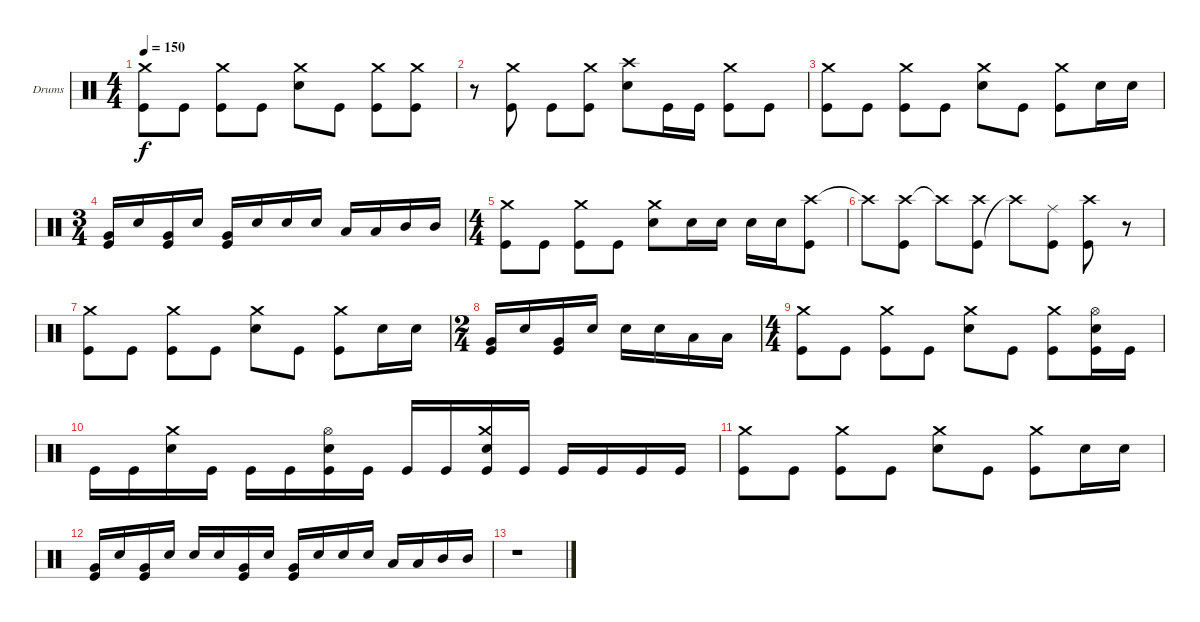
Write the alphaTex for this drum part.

\defaultSystemsLayout 4
\bracketExtendMode groupsimilarinstruments
\firstSystemTrackNameOrientation horizontal
\otherSystemsTrackNameOrientation horizontal
\track ("Moe Carlson" "Drums") {instrument percussion}
\staff {score}
\articulation defaults
\ts (4 4)
\tempo 150
\clef neutral
\ks c
("Kick (hit)" "Crash medium (hit)").8{dy f} "Kick (hit)".8 ("Kick (hit)" "Crash medium (hit)").8 "Kick (hit)".8 ("Snare (hit) 2" "Crash medium (hit)").8 "Kick (hit)".8 ("Kick (hit)" "Crash medium (hit)").8 ("Kick (hit)" "Crash medium (hit)").8 |
r.8 ("Crash medium (hit)" "Kick (hit)").8 "Kick (hit)".8 ("Kick (hit)" "Crash medium (hit)").8 ("Crash high (hit)" "Snare (hit) 2").8 "Kick (hit)".16 "Kick (hit)".16 ("Kick (hit)" "Crash medium (hit)").8 "Kick (hit)".8 |
("Crash medium (hit)" "Kick (hit)").8 "Kick (hit)".8 ("Kick (hit)" "Crash medium (hit)").8 "Kick (hit)".8 ("Snare (hit) 2" "Crash medium (hit)").8 "Kick (hit)".8 ("Kick (hit)" "Crash medium (hit)").8 "Snare (hit) 2".16 "Snare (hit) 2".16 |
\ts (3 4)
("Kick (hit)" "Very Low Tom (hit)").16 "Snare (hit) 2".16 ("Very Low Tom (hit)" "Kick (hit)").16 "Snare (hit) 2".16 ("Kick (hit)" "Very Low Tom (hit)").16 "Snare (hit) 2".16 "Snare (hit) 2".16 "Snare (hit) 2".16 "Low Tom (hit)".16 "Low Tom (hit)".16 "Mid Tom (hit)".16 "Mid Tom (hit)".16 |
\ts (4 4)
("Crash medium (hit)" "Kick (hit)").8 "Kick (hit)".8 ("Kick (hit)" "Crash medium (hit)").8 "Kick (hit)".8 ("Snare (hit) 2" "Crash medium (hit)").8 "Snare (hit) 2".16 "Snare (hit) 2".16 "Snare (hit) 2".16 "Snare (hit) 2".16 ("Crash high (hit)" "Kick (hit)").8 |
"Crash high (hit)"{t}.8 ("Crash high (hit)" "Kick (hit)").8 "Crash high (hit)"{t}.8 ("Kick (hit)" "Crash high (hit)").8 "Crash high (hit)"{t}.8 ("Kick (hit)" "Ride (middle)").8 ("Crash high (hit)" "Kick (hit)").8 r.8 |
("Kick (hit)" "Crash medium (hit)").8 "Kick (hit)".8 ("Kick (hit)" "Crash medium (hit)").8 "Kick (hit)".8 ("Snare (hit) 2" "Crash medium (hit)").8 "Kick (hit)".8 ("Kick (hit)" "Crash medium (hit)").8 "Snare (hit) 2".16 "Snare (hit) 2".16 |
\ts (2 4)
("Kick (hit)" "Very Low Tom (hit)").16 "Snare (hit) 2".16 ("Very Low Tom (hit)" "Kick (hit)").16 "Snare (hit) 2".16 "Snare (hit) 2".16 "Snare (hit) 2".16 "Low Tom (hit)".16 "Low Tom (hit)".16 |
\ts (4 4)
("Kick (hit)" "Crash medium (hit)").8 "Kick (hit)".8 ("Kick (hit)" "Crash medium (hit)").8 "Kick (hit)".8 ("Snare (hit) 2" "Crash medium (hit)").8 "Kick (hit)".8 ("Kick (hit)" "Crash medium (hit)").8 ("Kick (hit)" "Snare (hit) 2" "Hi-Hat (open)").16 "Kick (hit)".16 |
"Kick (hit)".16 "Kick (hit)".16 ("Snare (hit) 2" "Crash medium (hit)").16 "Kick (hit)".16 "Kick (hit)".16 "Kick (hit)".16 ("Kick (hit)" "Snare (hit) 2" "Hi-Hat (open)").16 "Kick (hit)".16 "Kick (hit)".16 "Kick (hit)".16 ("Snare (hit) 2" "Crash medium (hit)" "Kick (hit)").16 "Kick (hit)".16 "Kick (hit)".16 "Kick (hit)".16 "Kick (hit)".16 "Kick (hit)".16 |
("Kick (hit)" "Crash medium (hit)").8 "Kick (hit)".8 ("Kick (hit)" "Crash medium (hit)").8 "Kick (hit)".8 ("Snare (hit) 2" "Crash medium (hit)").8 "Kick (hit)".8 ("Kick (hit)" "Crash medium (hit)").8 "Snare (hit) 2".16 "Snare (hit) 2".16 |
("Kick (hit)" "Very Low Tom (hit)").16 "Snare (hit) 2".16 ("Kick (hit)" "Very Low Tom (hit)").16 "Snare (hit) 2".16 "Snare (hit) 2".16 "Snare (hit) 2".16 ("Kick (hit)" "Very Low Tom (hit)").16 "Snare (hit) 2".16 ("Kick (hit)" "Very Low Tom (hit)").16 "Snare (hit) 2".16 "Snare (hit) 2".16 "Snare (hit) 2".16 "Low Tom (hit)".16 "Low Tom (hit)".16 "Mid Tom (hit)".16 "Mid Tom (hit)".16 |
r.1
